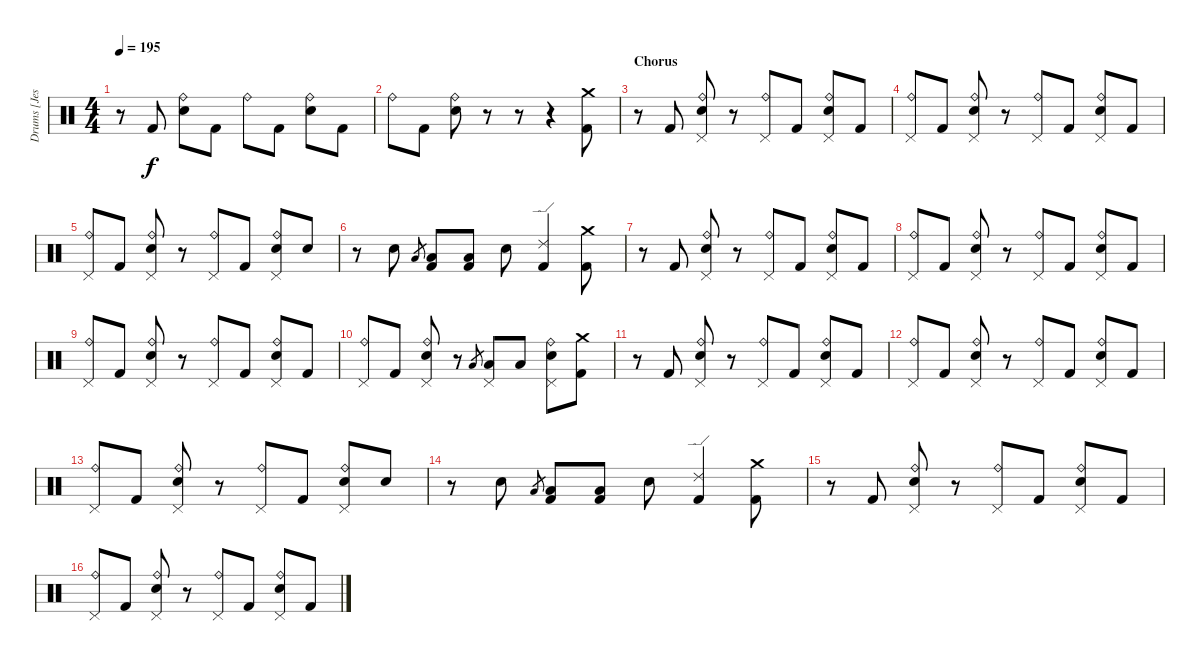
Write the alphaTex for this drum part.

\track ("Drums [Jesse Ingelevics]" "Drums [Jes") {instrument percussion}
\staff {score}
\articulation defaults
\ts (4 4)
\tempo 195
\clef neutral
\ks c
r.8{dy f} "Kick (hit) 2".8 ("Ride (bell)" "Electric Snare (hit)").8 "Kick (hit) 2".8 "Ride (bell)".8 "Kick (hit) 2".8 ("Ride (bell)" "Electric Snare (hit)").8 "Kick (hit) 2".8 |
"Ride (bell)".8 "Kick (hit) 2".8 ("Ride (bell)" "Electric Snare (hit)").8 r.8 r.8 r.4 ("Crash medium (hit)" "Kick (hit) 2").8 |
\section ("" "Chorus")
r.8 "Kick (hit) 2".8 ("Ride (bell)" "Pedal Hi-Hat (hit)" "Electric Snare (hit)").8 r.8 ("Ride (bell)" "Pedal Hi-Hat (hit)").8 "Kick (hit) 2".8 ("Ride (bell)" "Pedal Hi-Hat (hit)" "Electric Snare (hit)").8 "Kick (hit) 2".8 |
("Ride (bell)" "Pedal Hi-Hat (hit)").8 "Kick (hit) 2".8 ("Ride (bell)" "Pedal Hi-Hat (hit)" "Electric Snare (hit)").8 r.8 ("Ride (bell)" "Pedal Hi-Hat (hit)").8 "Kick (hit) 2".8 ("Ride (bell)" "Pedal Hi-Hat (hit)" "Electric Snare (hit)").8 "Kick (hit) 2".8 |
("Ride (bell)" "Pedal Hi-Hat (hit)").8 "Kick (hit) 2".8 ("Ride (bell)" "Pedal Hi-Hat (hit)" "Electric Snare (hit)").8 r.8 ("Ride (bell)" "Pedal Hi-Hat (hit)").8 "Kick (hit) 2".8 ("Ride (bell)" "Pedal Hi-Hat (hit)" "Electric Snare (hit)").8 "Electric Snare (hit)".8 |
r.8 "Electric Snare (hit)".8 "Low Tom (hit)".8{gr} ("Low Tom (hit)" "Kick (hit) 2").8 ("Low Tom (hit)" "Kick (hit) 2").8 "Electric Snare (hit)".8 ("Ride (edge) 2" "Kick (hit) 2").4 ("Crash medium (hit)" "Kick (hit) 2").8 |
r.8 "Kick (hit) 2".8 ("Ride (bell)" "Pedal Hi-Hat (hit)" "Electric Snare (hit)").8 r.8 ("Ride (bell)" "Pedal Hi-Hat (hit)").8 "Kick (hit) 2".8 ("Ride (bell)" "Pedal Hi-Hat (hit)" "Electric Snare (hit)").8 "Kick (hit) 2".8 |
("Ride (bell)" "Pedal Hi-Hat (hit)").8 "Kick (hit) 2".8 ("Ride (bell)" "Pedal Hi-Hat (hit)" "Electric Snare (hit)").8 r.8 ("Ride (bell)" "Pedal Hi-Hat (hit)").8 "Kick (hit) 2".8 ("Ride (bell)" "Pedal Hi-Hat (hit)" "Electric Snare (hit)").8 "Kick (hit) 2".8 |
("Ride (bell)" "Pedal Hi-Hat (hit)").8 "Kick (hit) 2".8 ("Ride (bell)" "Pedal Hi-Hat (hit)" "Electric Snare (hit)").8 r.8 ("Ride (bell)" "Pedal Hi-Hat (hit)").8 "Kick (hit) 2".8 ("Ride (bell)" "Pedal Hi-Hat (hit)" "Electric Snare (hit)").8 "Kick (hit) 2".8 |
("Ride (bell)" "Pedal Hi-Hat (hit)").8 "Kick (hit) 2".8 ("Ride (bell)" "Pedal Hi-Hat (hit)" "Electric Snare (hit)").8 r.8 "Low Tom (hit)".8{gr} ("Pedal Hi-Hat (hit)" "Low Tom (hit)").8 "Low Tom (hit)".8 ("Ride (bell)" "Pedal Hi-Hat (hit)" "Electric Snare (hit)").8 ("Crash medium (hit)" "Kick (hit) 2").8 |
r.8 "Kick (hit) 2".8 ("Ride (bell)" "Pedal Hi-Hat (hit)" "Electric Snare (hit)").8 r.8 ("Ride (bell)" "Pedal Hi-Hat (hit)").8 "Kick (hit) 2".8 ("Ride (bell)" "Pedal Hi-Hat (hit)" "Electric Snare (hit)").8 "Kick (hit) 2".8 |
("Ride (bell)" "Pedal Hi-Hat (hit)").8 "Kick (hit) 2".8 ("Ride (bell)" "Pedal Hi-Hat (hit)" "Electric Snare (hit)").8 r.8 ("Ride (bell)" "Pedal Hi-Hat (hit)").8 "Kick (hit) 2".8 ("Ride (bell)" "Pedal Hi-Hat (hit)" "Electric Snare (hit)").8 "Kick (hit) 2".8 |
("Ride (bell)" "Pedal Hi-Hat (hit)").8 "Kick (hit) 2".8 ("Ride (bell)" "Pedal Hi-Hat (hit)" "Electric Snare (hit)").8 r.8 ("Ride (bell)" "Pedal Hi-Hat (hit)").8 "Kick (hit) 2".8 ("Ride (bell)" "Pedal Hi-Hat (hit)" "Electric Snare (hit)").8 "Electric Snare (hit)".8 |
r.8 "Electric Snare (hit)".8 "Low Tom (hit)".8{gr} ("Low Tom (hit)" "Kick (hit) 2").8 ("Low Tom (hit)" "Kick (hit) 2").8 "Electric Snare (hit)".8 ("Ride (edge) 2" "Kick (hit) 2").4 ("Crash medium (hit)" "Kick (hit) 2").8 |
r.8 "Kick (hit) 2".8 ("Ride (bell)" "Pedal Hi-Hat (hit)" "Electric Snare (hit)").8 r.8 ("Ride (bell)" "Pedal Hi-Hat (hit)").8 "Kick (hit) 2".8 ("Ride (bell)" "Pedal Hi-Hat (hit)" "Electric Snare (hit)").8 "Kick (hit) 2".8 |
("Ride (bell)" "Pedal Hi-Hat (hit)").8 "Kick (hit) 2".8 ("Ride (bell)" "Pedal Hi-Hat (hit)" "Electric Snare (hit)").8 r.8 ("Ride (bell)" "Pedal Hi-Hat (hit)").8 "Kick (hit) 2".8 ("Ride (bell)" "Pedal Hi-Hat (hit)" "Electric Snare (hit)").8 "Kick (hit) 2".8
